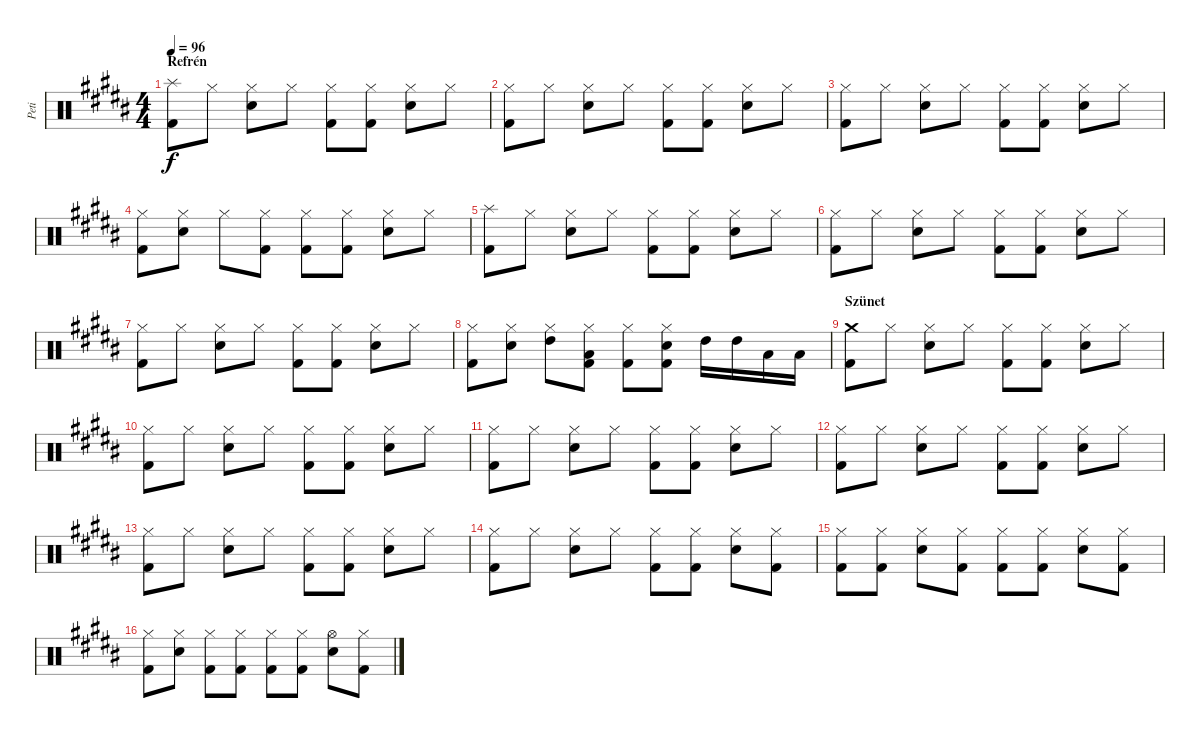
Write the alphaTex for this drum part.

\track ("Peti" "Peti") {instrument percussion}
\staff {score}
\articulation defaults
\ts (4 4)
\section ("" "Refrén")
\tempo 96
\clef neutral
\ks g#minor
("Splash (hit)" "Kick (hit) 2").8{dy f} "Hi-Hat (closed)".8 ("Hi-Hat (closed)" "Snare (hit) 2").8 "Hi-Hat (closed)".8 ("Hi-Hat (closed)" "Kick (hit) 2").8 ("Hi-Hat (closed)" "Kick (hit) 2").8 ("Hi-Hat (closed)" "Snare (hit) 2").8 "Hi-Hat (closed)".8 |
("Hi-Hat (closed)" "Kick (hit) 2").8 "Hi-Hat (closed)".8 ("Hi-Hat (closed)" "Snare (hit) 2").8 "Hi-Hat (closed)".8 ("Hi-Hat (closed)" "Kick (hit) 2").8 ("Hi-Hat (closed)" "Kick (hit) 2").8 ("Hi-Hat (closed)" "Snare (hit) 2").8 "Hi-Hat (closed)".8 |
("Hi-Hat (closed)" "Kick (hit) 2").8 "Hi-Hat (closed)".8 ("Hi-Hat (closed)" "Snare (hit) 2").8 "Hi-Hat (closed)".8 ("Hi-Hat (closed)" "Kick (hit) 2").8 ("Hi-Hat (closed)" "Kick (hit) 2").8 ("Hi-Hat (closed)" "Snare (hit) 2").8 "Hi-Hat (closed)".8 |
("Hi-Hat (closed)" "Kick (hit) 2").8 ("Hi-Hat (closed)" "Snare (hit) 2").8 "Hi-Hat (closed)".8 ("Hi-Hat (closed)" "Kick (hit) 2").8 ("Hi-Hat (closed)" "Kick (hit) 2").8 ("Hi-Hat (closed)" "Kick (hit) 2").8 ("Hi-Hat (closed)" "Snare (hit) 2").8 "Hi-Hat (closed)".8 |
("Splash (hit)" "Kick (hit) 2").8 "Hi-Hat (closed)".8 ("Hi-Hat (closed)" "Snare (hit) 2").8 "Hi-Hat (closed)".8 ("Hi-Hat (closed)" "Kick (hit) 2").8 ("Hi-Hat (closed)" "Kick (hit) 2").8 ("Hi-Hat (closed)" "Snare (hit) 2").8 "Hi-Hat (closed)".8 |
("Hi-Hat (closed)" "Kick (hit) 2").8 "Hi-Hat (closed)".8 ("Hi-Hat (closed)" "Snare (hit) 2").8 "Hi-Hat (closed)".8 ("Hi-Hat (closed)" "Kick (hit) 2").8 ("Hi-Hat (closed)" "Kick (hit) 2").8 ("Hi-Hat (closed)" "Snare (hit) 2").8 "Hi-Hat (closed)".8 |
("Hi-Hat (closed)" "Kick (hit) 2").8 "Hi-Hat (closed)".8 ("Hi-Hat (closed)" "Snare (hit) 2").8 "Hi-Hat (closed)".8 ("Hi-Hat (closed)" "Kick (hit) 2").8 ("Hi-Hat (closed)" "Kick (hit) 2").8 ("Hi-Hat (closed)" "Snare (hit) 2").8 "Hi-Hat (closed)".8 |
("Hi-Hat (closed)" "Kick (hit) 2").8 ("Hi-Hat (closed)" "Snare (hit) 2").8 ("Hi-Hat (closed)" "High Tom (hit)").8 ("Hi-Hat (closed)" "Low Tom (hit)" "Kick (hit) 2").8 ("Hi-Hat (closed)" "Kick (hit) 2").8 ("Hi-Hat (closed)" "Snare (hit) 2" "Kick (hit) 2").8 "High Tom (hit)".16 "High Tom (hit)".16 "Low Tom (hit)".16 "Low Tom (hit)".16 |
\section ("" "Szünet")
("Crash medium (hit)" "Kick (hit) 2").8 "Hi-Hat (closed)".8 ("Hi-Hat (closed)" "Snare (hit) 2").8 "Hi-Hat (closed)".8 ("Hi-Hat (closed)" "Kick (hit) 2").8 ("Hi-Hat (closed)" "Kick (hit) 2").8 ("Hi-Hat (closed)" "Snare (hit) 2").8 "Hi-Hat (closed)".8 |
("Hi-Hat (closed)" "Kick (hit) 2").8 "Hi-Hat (closed)".8 ("Hi-Hat (closed)" "Snare (hit) 2").8 "Hi-Hat (closed)".8 ("Hi-Hat (closed)" "Kick (hit) 2").8 ("Hi-Hat (closed)" "Kick (hit) 2").8 ("Hi-Hat (closed)" "Snare (hit) 2").8 "Hi-Hat (closed)".8 |
("Hi-Hat (closed)" "Kick (hit) 2").8 "Hi-Hat (closed)".8 ("Hi-Hat (closed)" "Snare (hit) 2").8 "Hi-Hat (closed)".8 ("Hi-Hat (closed)" "Kick (hit) 2").8 ("Hi-Hat (closed)" "Kick (hit) 2").8 ("Hi-Hat (closed)" "Snare (hit) 2").8 "Hi-Hat (closed)".8 |
("Hi-Hat (closed)" "Kick (hit) 2").8 "Hi-Hat (closed)".8 ("Hi-Hat (closed)" "Snare (hit) 2").8 "Hi-Hat (closed)".8 ("Hi-Hat (closed)" "Kick (hit) 2").8 ("Hi-Hat (closed)" "Kick (hit) 2").8 ("Hi-Hat (closed)" "Snare (hit) 2").8 "Hi-Hat (closed)".8 |
("Hi-Hat (closed)" "Kick (hit) 2").8 "Hi-Hat (closed)".8 ("Hi-Hat (closed)" "Snare (hit) 2").8 "Hi-Hat (closed)".8 ("Hi-Hat (closed)" "Kick (hit) 2").8 ("Hi-Hat (closed)" "Kick (hit) 2").8 ("Hi-Hat (closed)" "Snare (hit) 2").8 "Hi-Hat (closed)".8 |
("Hi-Hat (closed)" "Kick (hit) 2").8 "Hi-Hat (closed)".8 ("Hi-Hat (closed)" "Snare (hit) 2").8 "Hi-Hat (closed)".8 ("Hi-Hat (closed)" "Kick (hit) 2").8 ("Hi-Hat (closed)" "Kick (hit) 2").8 ("Hi-Hat (closed)" "Snare (hit) 2").8 ("Hi-Hat (closed)" "Kick (hit) 2").8 |
("Hi-Hat (closed)" "Kick (hit) 2").8 ("Hi-Hat (closed)" "Kick (hit) 2").8 ("Hi-Hat (closed)" "Snare (hit) 2").8 ("Hi-Hat (closed)" "Kick (hit) 2").8 ("Hi-Hat (closed)" "Kick (hit) 2").8 ("Hi-Hat (closed)" "Kick (hit) 2").8 ("Hi-Hat (closed)" "Snare (hit) 2").8 ("Hi-Hat (closed)" "Kick (hit) 2").8 |
("Hi-Hat (closed)" "Kick (hit) 2").8 ("Hi-Hat (closed)" "Snare (hit) 2").8 ("Hi-Hat (closed)" "Kick (hit) 2").8 ("Hi-Hat (closed)" "Kick (hit) 2").8 ("Hi-Hat (closed)" "Kick (hit) 2").8 ("Hi-Hat (closed)" "Kick (hit) 2").8 ("Hi-Hat (open)" "Snare (hit) 2").8 ("Hi-Hat (closed)" "Kick (hit) 2").8
